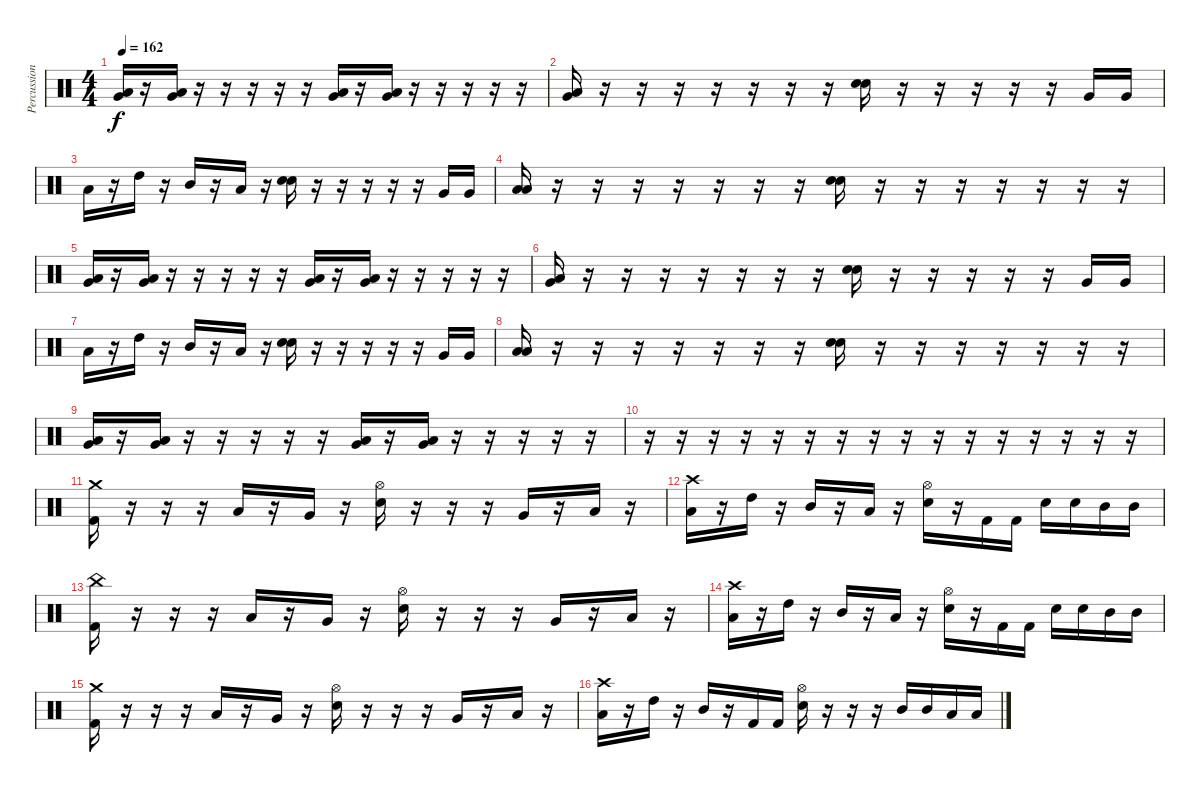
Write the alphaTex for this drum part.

\track ("Percussion" "Percussion") {instrument percussion}
\staff {score}
\articulation defaults
\ts (4 4)
\tempo 162
\clef neutral
\ks c
("Low Tom (hit)" "Very Low Tom (hit)").16{dy f} r.16 ("Low Tom (hit)" "Very Low Tom (hit)").16 r.16 r.16 r.16 r.16 r.16 ("Very Low Tom (hit)" "Low Floor Tom (hit)").16 r.16 ("Very Low Tom (hit)" "Low Floor Tom (hit)").16 r.16 r.16 r.16 r.16 r.16 |
("Low Tom (hit)" "Very Low Tom (hit)").16 r.16 r.16 r.16 r.16 r.16 r.16 r.16 ("Electric Snare (hit)" "Electric Snare (hit)").16{bu 60} r.16 r.16 r.16 r.16 r.16 "Very Low Tom (hit)".16 "Very Low Tom (hit)".16 |
"Low Tom (hit)".16 r.16 "High Tom (hit)".16 r.16 "Mid Tom (hit)".16 r.16 "Low Tom (hit)".16 r.16 ("Electric Snare (hit)" "Electric Snare (hit)").16{bu 60} r.16 r.16 r.16 r.16 r.16 "Very Low Tom (hit)".16 "Very Low Tom (hit)".16 |
("Low Floor Tom (hit)" "Low Floor Tom (hit)").16{bu 60} r.16 r.16 r.16 r.16 r.16 r.16 r.16 ("Electric Snare (hit)" "Electric Snare (hit)").16{bu 60} r.16 r.16 r.16 r.16 r.16 r.16 r.16 |
("Low Tom (hit)" "Very Low Tom (hit)").16 r.16 ("Low Tom (hit)" "Very Low Tom (hit)").16 r.16 r.16 r.16 r.16 r.16 ("Very Low Tom (hit)" "Low Floor Tom (hit)").16 r.16 ("Very Low Tom (hit)" "Low Floor Tom (hit)").16 r.16 r.16 r.16 r.16 r.16 |
("Low Tom (hit)" "Very Low Tom (hit)").16 r.16 r.16 r.16 r.16 r.16 r.16 r.16 ("Electric Snare (hit)" "Electric Snare (hit)").16{bu 60} r.16 r.16 r.16 r.16 r.16 "Very Low Tom (hit)".16 "Very Low Tom (hit)".16 |
"Low Tom (hit)".16 r.16 "High Tom (hit)".16 r.16 "Mid Tom (hit)".16 r.16 "Low Tom (hit)".16 r.16 ("Electric Snare (hit)" "Electric Snare (hit)").16{bu 60} r.16 r.16 r.16 r.16 r.16 "Very Low Tom (hit)".16 "Very Low Tom (hit)".16 |
("Low Floor Tom (hit)" "Low Floor Tom (hit)").16{bu 60} r.16 r.16 r.16 r.16 r.16 r.16 r.16 ("Electric Snare (hit)" "Electric Snare (hit)").16{bu 60} r.16 r.16 r.16 r.16 r.16 r.16 r.16 |
("Low Tom (hit)" "Very Low Tom (hit)").16 r.16 ("Low Tom (hit)" "Very Low Tom (hit)").16 r.16 r.16 r.16 r.16 r.16 ("Very Low Tom (hit)" "Low Floor Tom (hit)").16 r.16 ("Very Low Tom (hit)" "Low Floor Tom (hit)").16 r.16 r.16 r.16 r.16 r.16 |
r.16 r.16 r.16 r.16 r.16 r.16 r.16 r.16 r.16 r.16 r.16 r.16 r.16 r.16 r.16 r.16 |
("Crash medium (hit)" "Kick (hit) 2").16 r.16 r.16 r.16 "Low Tom (hit)".16 r.16 "Very Low Tom (hit)".16 r.16 ("Hi-Hat (open)" "Electric Snare (hit)").16 r.16 r.16 r.16 "Very Low Tom (hit)".16 r.16 "Low Floor Tom (hit)".16 r.16 |
("Crash high (hit)" "Low Tom (hit)").16 r.16 "High Tom (hit)".16 r.16 "Mid Tom (hit)".16 r.16 "Low Tom (hit)".16 r.16 ("Hi-Hat (open)" "Electric Snare (hit)").16 r.16 "Kick (hit) 2".16 "Kick (hit) 2".16 "Electric Snare (hit)".16 "Electric Snare (hit)".16 "Mid Tom (hit)".16 "Mid Tom (hit)".16 |
("China (hit)" "Kick (hit) 2").16 r.16 r.16 r.16 "Low Tom (hit)".16 r.16 "Very Low Tom (hit)".16 r.16 ("Hi-Hat (open)" "Electric Snare (hit)").16 r.16 r.16 r.16 "Very Low Tom (hit)".16 r.16 "Low Tom (hit)".16 r.16 |
("Crash high (hit)" "Low Floor Tom (hit)").16 r.16 "High Tom (hit)".16 r.16 "Mid Tom (hit)".16 r.16 "Low Tom (hit)".16 r.16 ("Hi-Hat (open)" "Electric Snare (hit)").16 r.16 "Kick (hit) 2".16 "Kick (hit) 2".16 "Electric Snare (hit)".16 "Electric Snare (hit)".16 "Mid Tom (hit)".16 "Mid Tom (hit)".16 |
("Crash medium (hit)" "Kick (hit) 2").16 r.16 r.16 r.16 "Low Tom (hit)".16 r.16 "Very Low Tom (hit)".16 r.16 ("Hi-Hat (open)" "Electric Snare (hit)").16 r.16 r.16 r.16 "Very Low Tom (hit)".16 r.16 "Low Floor Tom (hit)".16 r.16 |
("Crash high (hit)" "Low Tom (hit)").16 r.16 "High Tom (hit)".16 r.16 "Mid Tom (hit)".16 r.16 "Kick (hit) 2".16 "Kick (hit) 2".16 ("Hi-Hat (open)" "Electric Snare (hit)").16 r.16 r.16 r.16 "Mid Tom (hit)".16 "Mid Tom (hit)".16 "Low Tom (hit)".16 "Low Tom (hit)".16
